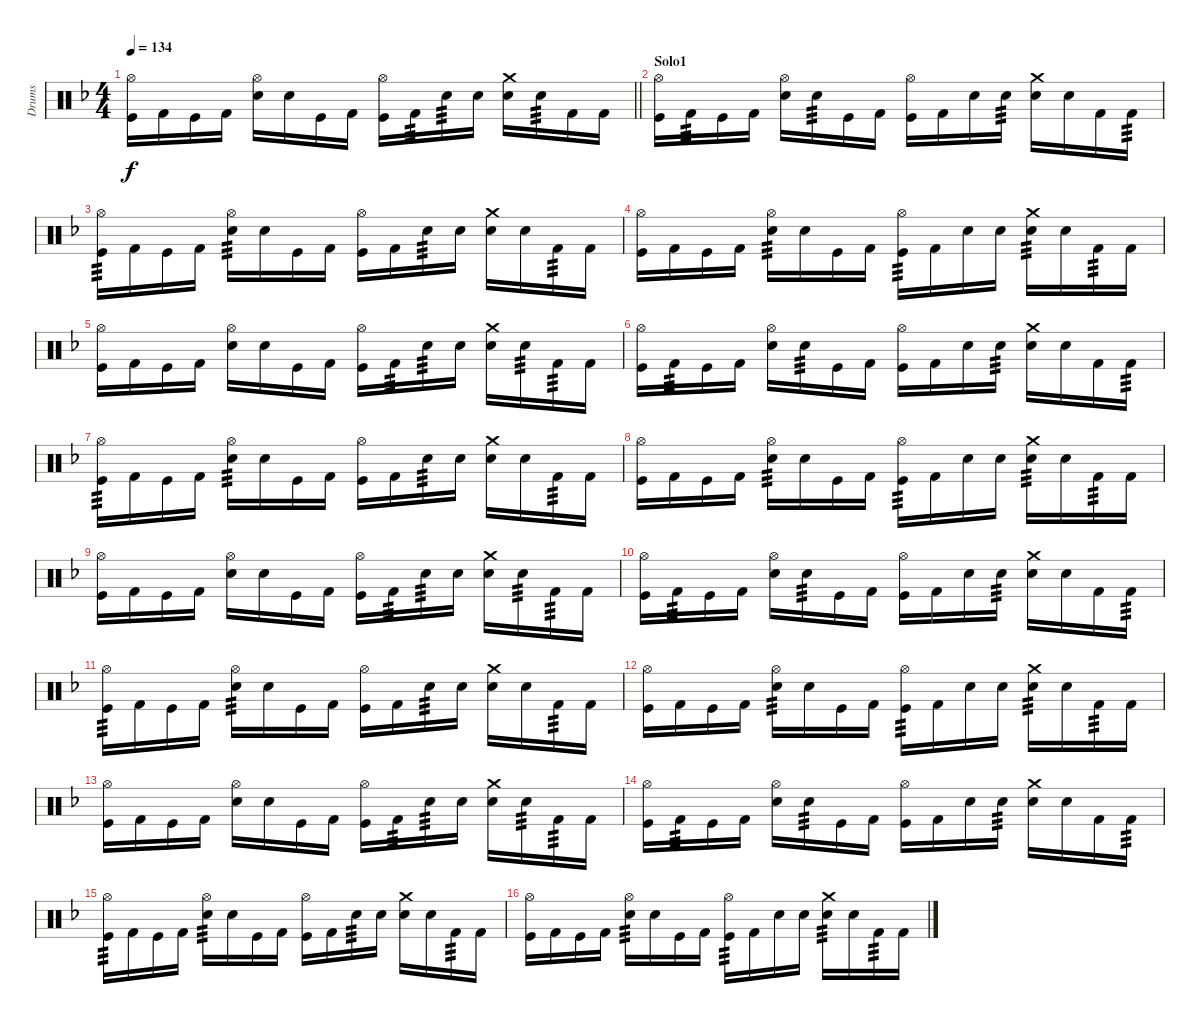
\track ("Drums" "Drums") {instrument percussion}
\staff {score}
\articulation defaults
\ts (4 4)
\tempo 134
\clef neutral
\barLineRight lightlight
\ks f
("Kick (hit)" "Hi-Hat (open)").16{dy f} "Kick (hit) 2".16 "Kick (hit)".16 "Kick (hit) 2".16 ("Electric Snare (hit)" "Hi-Hat (open)").16 "Electric Snare (hit)".16 "Kick (hit)".16 "Kick (hit) 2".16 ("Kick (hit)" "Hi-Hat (open)").16 "Kick (hit) 2".16{tp 3} "Electric Snare (hit)".16{tp 3} "Electric Snare (hit)".16 ("Electric Snare (hit)" "Crash medium (hit)").16 "Snare (hit) 2".16{tp 3} "Kick (hit) 2".16 "Kick (hit) 2".16 |
\section ("" "Solo1")
("Kick (hit)" "Hi-Hat (open)").16 "Kick (hit) 2".16{tp 3} "Kick (hit)".16 "Kick (hit) 2".16 ("Electric Snare (hit)" "Hi-Hat (open)").16 "Electric Snare (hit)".16{tp 3} "Kick (hit)".16 "Kick (hit) 2".16 ("Kick (hit)" "Hi-Hat (open)").16 "Kick (hit) 2".16 "Electric Snare (hit)".16 "Electric Snare (hit)".16{tp 3} ("Electric Snare (hit)" "Crash medium (hit)").16 "Snare (hit) 2".16 "Kick (hit) 2".16 "Kick (hit) 2".16{tp 3} |
("Kick (hit)" "Hi-Hat (open)").16{tp 3} "Kick (hit) 2".16 "Kick (hit)".16 "Kick (hit) 2".16 ("Electric Snare (hit)" "Hi-Hat (open)").16{tp 3} "Electric Snare (hit)".16 "Kick (hit)".16 "Kick (hit) 2".16 ("Kick (hit)" "Hi-Hat (open)").16 "Kick (hit) 2".16 "Electric Snare (hit)".16{tp 3} "Electric Snare (hit)".16 ("Electric Snare (hit)" "Crash medium (hit)").16 "Snare (hit) 2".16 "Kick (hit) 2".16{tp 3} "Kick (hit) 2".16 |
("Kick (hit)" "Hi-Hat (open)").16 "Kick (hit) 2".16 "Kick (hit)".16 "Kick (hit) 2".16 ("Electric Snare (hit)" "Hi-Hat (open)").16{tp 3} "Electric Snare (hit)".16 "Kick (hit)".16 "Kick (hit) 2".16 ("Kick (hit)" "Hi-Hat (open)").16{tp 3} "Kick (hit) 2".16 "Electric Snare (hit)".16 "Electric Snare (hit)".16 ("Electric Snare (hit)" "Crash medium (hit)").16{tp 3} "Snare (hit) 2".16 "Kick (hit) 2".16{tp 3} "Kick (hit) 2".16 |
("Kick (hit)" "Hi-Hat (open)").16 "Kick (hit) 2".16 "Kick (hit)".16 "Kick (hit) 2".16 ("Electric Snare (hit)" "Hi-Hat (open)").16 "Electric Snare (hit)".16 "Kick (hit)".16 "Kick (hit) 2".16 ("Kick (hit)" "Hi-Hat (open)").16 "Kick (hit) 2".16{tp 3} "Electric Snare (hit)".16{tp 3} "Electric Snare (hit)".16 ("Electric Snare (hit)" "Crash medium (hit)").16 "Snare (hit) 2".16{tp 3} "Kick (hit) 2".16{tp 3} "Kick (hit) 2".16 |
("Kick (hit)" "Hi-Hat (open)").16 "Kick (hit) 2".16{tp 3} "Kick (hit)".16 "Kick (hit) 2".16 ("Electric Snare (hit)" "Hi-Hat (open)").16 "Electric Snare (hit)".16{tp 3} "Kick (hit)".16 "Kick (hit) 2".16 ("Kick (hit)" "Hi-Hat (open)").16 "Kick (hit) 2".16 "Electric Snare (hit)".16 "Electric Snare (hit)".16{tp 3} ("Electric Snare (hit)" "Crash medium (hit)").16 "Snare (hit) 2".16 "Kick (hit) 2".16 "Kick (hit) 2".16{tp 3} |
("Kick (hit)" "Hi-Hat (open)").16{tp 3} "Kick (hit) 2".16 "Kick (hit)".16 "Kick (hit) 2".16 ("Electric Snare (hit)" "Hi-Hat (open)").16{tp 3} "Electric Snare (hit)".16 "Kick (hit)".16 "Kick (hit) 2".16 ("Kick (hit)" "Hi-Hat (open)").16 "Kick (hit) 2".16 "Electric Snare (hit)".16{tp 3} "Electric Snare (hit)".16 ("Electric Snare (hit)" "Crash medium (hit)").16 "Snare (hit) 2".16 "Kick (hit) 2".16{tp 3} "Kick (hit) 2".16 |
("Kick (hit)" "Hi-Hat (open)").16 "Kick (hit) 2".16 "Kick (hit)".16 "Kick (hit) 2".16 ("Electric Snare (hit)" "Hi-Hat (open)").16{tp 3} "Electric Snare (hit)".16 "Kick (hit)".16 "Kick (hit) 2".16 ("Kick (hit)" "Hi-Hat (open)").16{tp 3} "Kick (hit) 2".16 "Electric Snare (hit)".16 "Electric Snare (hit)".16 ("Electric Snare (hit)" "Crash medium (hit)").16{tp 3} "Snare (hit) 2".16 "Kick (hit) 2".16{tp 3} "Kick (hit) 2".16 |
("Kick (hit)" "Hi-Hat (open)").16 "Kick (hit) 2".16 "Kick (hit)".16 "Kick (hit) 2".16 ("Electric Snare (hit)" "Hi-Hat (open)").16 "Electric Snare (hit)".16 "Kick (hit)".16 "Kick (hit) 2".16 ("Kick (hit)" "Hi-Hat (open)").16 "Kick (hit) 2".16{tp 3} "Electric Snare (hit)".16{tp 3} "Electric Snare (hit)".16 ("Electric Snare (hit)" "Crash medium (hit)").16 "Snare (hit) 2".16{tp 3} "Kick (hit) 2".16{tp 3} "Kick (hit) 2".16 |
("Kick (hit)" "Hi-Hat (open)").16 "Kick (hit) 2".16{tp 3} "Kick (hit)".16 "Kick (hit) 2".16 ("Electric Snare (hit)" "Hi-Hat (open)").16 "Electric Snare (hit)".16{tp 3} "Kick (hit)".16 "Kick (hit) 2".16 ("Kick (hit)" "Hi-Hat (open)").16 "Kick (hit) 2".16 "Electric Snare (hit)".16 "Electric Snare (hit)".16{tp 3} ("Electric Snare (hit)" "Crash medium (hit)").16 "Snare (hit) 2".16 "Kick (hit) 2".16 "Kick (hit) 2".16{tp 3} |
("Kick (hit)" "Hi-Hat (open)").16{tp 3} "Kick (hit) 2".16 "Kick (hit)".16 "Kick (hit) 2".16 ("Electric Snare (hit)" "Hi-Hat (open)").16{tp 3} "Electric Snare (hit)".16 "Kick (hit)".16 "Kick (hit) 2".16 ("Kick (hit)" "Hi-Hat (open)").16 "Kick (hit) 2".16 "Electric Snare (hit)".16{tp 3} "Electric Snare (hit)".16 ("Electric Snare (hit)" "Crash medium (hit)").16 "Snare (hit) 2".16 "Kick (hit) 2".16{tp 3} "Kick (hit) 2".16 |
("Kick (hit)" "Hi-Hat (open)").16 "Kick (hit) 2".16 "Kick (hit)".16 "Kick (hit) 2".16 ("Electric Snare (hit)" "Hi-Hat (open)").16{tp 3} "Electric Snare (hit)".16 "Kick (hit)".16 "Kick (hit) 2".16 ("Kick (hit)" "Hi-Hat (open)").16{tp 3} "Kick (hit) 2".16 "Electric Snare (hit)".16 "Electric Snare (hit)".16 ("Electric Snare (hit)" "Crash medium (hit)").16{tp 3} "Snare (hit) 2".16 "Kick (hit) 2".16{tp 3} "Kick (hit) 2".16 |
("Kick (hit)" "Hi-Hat (open)").16 "Kick (hit) 2".16 "Kick (hit)".16 "Kick (hit) 2".16 ("Electric Snare (hit)" "Hi-Hat (open)").16 "Electric Snare (hit)".16 "Kick (hit)".16 "Kick (hit) 2".16 ("Kick (hit)" "Hi-Hat (open)").16 "Kick (hit) 2".16{tp 3} "Electric Snare (hit)".16{tp 3} "Electric Snare (hit)".16 ("Electric Snare (hit)" "Crash medium (hit)").16 "Snare (hit) 2".16{tp 3} "Kick (hit) 2".16{tp 3} "Kick (hit) 2".16 |
("Kick (hit)" "Hi-Hat (open)").16 "Kick (hit) 2".16{tp 3} "Kick (hit)".16 "Kick (hit) 2".16 ("Electric Snare (hit)" "Hi-Hat (open)").16 "Electric Snare (hit)".16{tp 3} "Kick (hit)".16 "Kick (hit) 2".16 ("Kick (hit)" "Hi-Hat (open)").16 "Kick (hit) 2".16 "Electric Snare (hit)".16 "Electric Snare (hit)".16{tp 3} ("Electric Snare (hit)" "Crash medium (hit)").16 "Snare (hit) 2".16 "Kick (hit) 2".16 "Kick (hit) 2".16{tp 3} |
("Kick (hit)" "Hi-Hat (open)").16{tp 3} "Kick (hit) 2".16 "Kick (hit)".16 "Kick (hit) 2".16 ("Electric Snare (hit)" "Hi-Hat (open)").16{tp 3} "Electric Snare (hit)".16 "Kick (hit)".16 "Kick (hit) 2".16 ("Kick (hit)" "Hi-Hat (open)").16 "Kick (hit) 2".16 "Electric Snare (hit)".16{tp 3} "Electric Snare (hit)".16 ("Electric Snare (hit)" "Crash medium (hit)").16 "Snare (hit) 2".16 "Kick (hit) 2".16{tp 3} "Kick (hit) 2".16 |
("Kick (hit)" "Hi-Hat (open)").16 "Kick (hit) 2".16 "Kick (hit)".16 "Kick (hit) 2".16 ("Electric Snare (hit)" "Hi-Hat (open)").16{tp 3} "Electric Snare (hit)".16 "Kick (hit)".16 "Kick (hit) 2".16 ("Kick (hit)" "Hi-Hat (open)").16{tp 3} "Kick (hit) 2".16 "Electric Snare (hit)".16 "Electric Snare (hit)".16 ("Electric Snare (hit)" "Crash medium (hit)").16{tp 3} "Snare (hit) 2".16 "Kick (hit) 2".16{tp 3} "Kick (hit) 2".16
